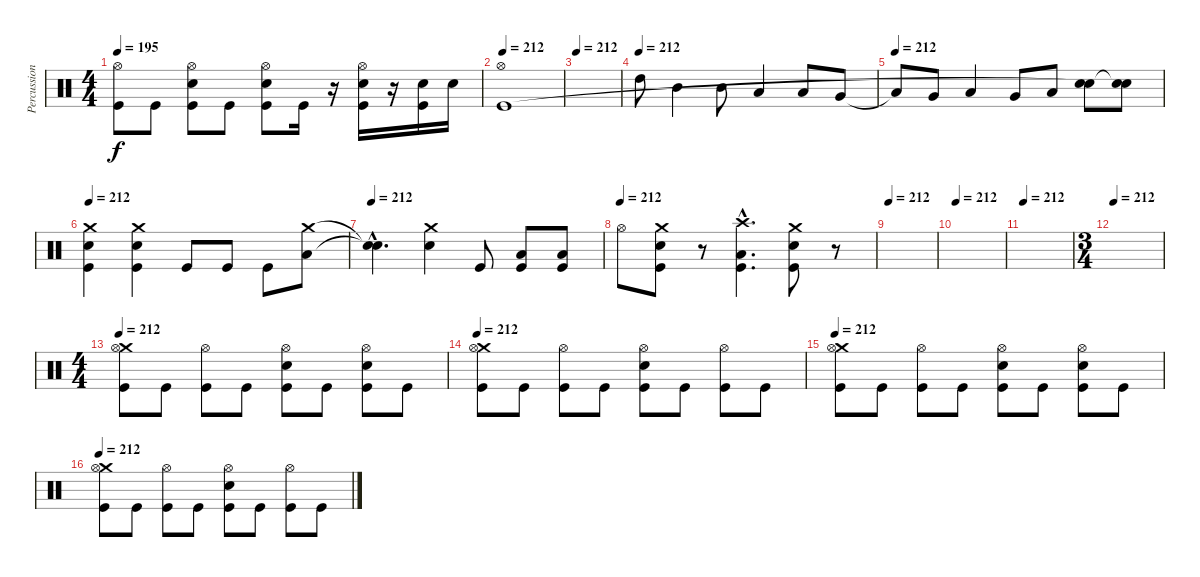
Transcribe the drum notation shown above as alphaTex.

\track ("Percussion" "Percussion") {instrument percussion}
\staff {score}
\articulation defaults
\ts (4 4)
\tempo 195
\clef neutral
\ks c
("Hi-Hat (open)" "Kick (hit)").8{dy f} "Kick (hit)".8 ("Electric Snare (hit)" "Hi-Hat (open)" "Kick (hit)").8 "Kick (hit)".8 ("Electric Snare (hit)" "Hi-Hat (open)" "Kick (hit)").8 "Kick (hit)".16 r.16 ("Electric Snare (hit)" "Hi-Hat (open)" "Kick (hit)").16 r.16 ("Electric Snare (hit)" "Kick (hit)").16 "Electric Snare (hit)".16 |
\tempo 212
("Hi-Hat (open)" "Kick (hit)").1 |
\tempo 212
|
\tempo (212)
"High Tom (hit)".8 "Mid Tom (hit)".4 "Mid Tom (hit)".8 "Low Tom (hit)".4 "Low Tom (hit)".8 "Very Low Tom (hit)".8 |
\tempo (212)
"Low Tom (hit)"{t}.8 "Very Low Tom (hit)".8 "Low Floor Tom (hit)".4 "Very Low Tom (hit)".8 "Low Floor Tom (hit)".8 ("Electric Snare (hit)" "Snare (hit)"{t}).8 ("Electric Snare (hit)" "Snare (hit)"{t}).8 |
\tempo 212
("Crash medium (hit)" "Electric Snare (hit)" "Kick (hit)").4 ("Crash medium (hit)" "Electric Snare (hit)" "Kick (hit)").4 "Kick (hit)".8 "Kick (hit)".8 "Kick (hit)".8 ("Crash medium (hit)" "Low Floor Tom (hit)").8 |
\tempo 212
("Snare (hit)"{hac t} "Snare (hit)"{hac t}).4{d} ("Crash medium (hit)" "Electric Snare (hit)").4 "Kick (hit)".8 ("Low Floor Tom (hit)" "Kick (hit)").8 ("Low Floor Tom (hit)" "Kick (hit)").8 |
\tempo (212)
"Hi-Hat (open)".8 ("Crash medium (hit)" "Electric Snare (hit)" "Kick (hit)").8 r.8 ("Crash high (hit)"{hac} "Low Floor Tom (hit)"{hac} "Kick (hit)"{hac}).4{d} ("Crash medium (hit)" "Electric Snare (hit)" "Kick (hit)").8 r.8 |
\tempo 212
|
\tempo 212
|
\tempo 212
|
\ts (3 4)
\tempo 212
|
\ts (4 4)
\tempo 212
("Crash medium (hit)" "Hi-Hat (open)" "Kick (hit)").8 "Kick (hit)".8 ("Hi-Hat (open)" "Kick (hit)").8 "Kick (hit)".8 ("Electric Snare (hit)" "Hi-Hat (open)" "Kick (hit)").8 "Kick (hit)".8 ("Electric Snare (hit)" "Hi-Hat (open)" "Kick (hit)").8 "Kick (hit)".8 |
\tempo 212
("Crash medium (hit)" "Hi-Hat (open)" "Kick (hit)").8 "Kick (hit)".8 ("Hi-Hat (open)" "Kick (hit)").8 "Kick (hit)".8 ("Electric Snare (hit)" "Hi-Hat (open)" "Kick (hit)").8 "Kick (hit)".8 ("Hi-Hat (open)" "Kick (hit)").8 "Kick (hit)".8 |
\tempo 212
("Crash medium (hit)" "Hi-Hat (open)" "Kick (hit)").8 "Kick (hit)".8 ("Hi-Hat (open)" "Kick (hit)").8 "Kick (hit)".8 ("Electric Snare (hit)" "Hi-Hat (open)" "Kick (hit)").8 "Kick (hit)".8 ("Electric Snare (hit)" "Hi-Hat (open)" "Kick (hit)").8 "Kick (hit)".8 |
\tempo 212
("Crash medium (hit)" "Hi-Hat (open)" "Kick (hit)").8 "Kick (hit)".8 ("Hi-Hat (open)" "Kick (hit)").8 "Kick (hit)".8 ("Electric Snare (hit)" "Hi-Hat (open)" "Kick (hit)").8 "Kick (hit)".8 ("Hi-Hat (open)" "Kick (hit)").8 "Kick (hit)".8
